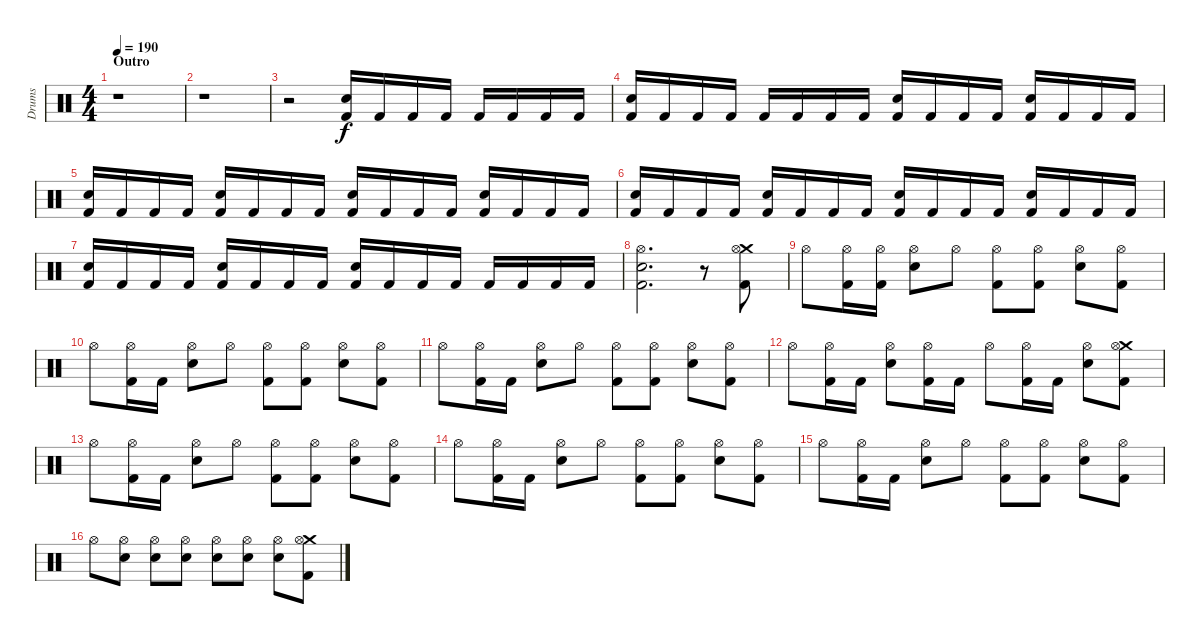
\track ("Drums" "Drums") {instrument percussion}
\staff {score}
\articulation defaults
\ts (4 4)
\section ("" "Outro")
\tempo 190
\clef neutral
\ks c
r.1{dy f} |
r.1{volume 0} |
r.2 ("Kick (hit) 2" "Electric Snare (hit)").16{volume 16} "Kick (hit) 2".16 "Kick (hit) 2".16 "Kick (hit) 2".16 "Kick (hit) 2".16 "Kick (hit) 2".16 "Kick (hit) 2".16 "Kick (hit) 2".16 |
("Kick (hit) 2" "Electric Snare (hit)").16 "Kick (hit) 2".16 "Kick (hit) 2".16 "Kick (hit) 2".16 "Kick (hit) 2".16 "Kick (hit) 2".16 "Kick (hit) 2".16 "Kick (hit) 2".16 ("Kick (hit) 2" "Electric Snare (hit)").16 "Kick (hit) 2".16 "Kick (hit) 2".16 "Kick (hit) 2".16 ("Kick (hit) 2" "Electric Snare (hit)").16 "Kick (hit) 2".16 "Kick (hit) 2".16 "Kick (hit) 2".16 |
("Kick (hit) 2" "Electric Snare (hit)").16 "Kick (hit) 2".16 "Kick (hit) 2".16 "Kick (hit) 2".16 ("Kick (hit) 2" "Electric Snare (hit)").16 "Kick (hit) 2".16 "Kick (hit) 2".16 "Kick (hit) 2".16 ("Kick (hit) 2" "Electric Snare (hit)").16 "Kick (hit) 2".16 "Kick (hit) 2".16 "Kick (hit) 2".16 ("Kick (hit) 2" "Electric Snare (hit)").16 "Kick (hit) 2".16 "Kick (hit) 2".16 "Kick (hit) 2".16 |
("Kick (hit) 2" "Electric Snare (hit)").16 "Kick (hit) 2".16 "Kick (hit) 2".16 "Kick (hit) 2".16 ("Kick (hit) 2" "Electric Snare (hit)").16 "Kick (hit) 2".16 "Kick (hit) 2".16 "Kick (hit) 2".16 ("Kick (hit) 2" "Electric Snare (hit)").16 "Kick (hit) 2".16 "Kick (hit) 2".16 "Kick (hit) 2".16 ("Kick (hit) 2" "Electric Snare (hit)").16 "Kick (hit) 2".16 "Kick (hit) 2".16 "Kick (hit) 2".16 |
("Kick (hit) 2" "Electric Snare (hit)").16 "Kick (hit) 2".16 "Kick (hit) 2".16 "Kick (hit) 2".16 ("Kick (hit) 2" "Electric Snare (hit)").16 "Kick (hit) 2".16 "Kick (hit) 2".16 "Kick (hit) 2".16 ("Kick (hit) 2" "Electric Snare (hit)").16 "Kick (hit) 2".16 "Kick (hit) 2".16 "Kick (hit) 2".16 "Kick (hit) 2".16 "Kick (hit) 2".16 "Kick (hit) 2".16 "Kick (hit) 2".16 |
("Hi-Hat (open)" "Kick (hit) 2" "Electric Snare (hit)").2{d} r.8 ("Crash medium (hit)" "Hi-Hat (open)" "Kick (hit) 2").8 |
"Hi-Hat (open)".8 ("Hi-Hat (open)" "Kick (hit) 2").16 ("Hi-Hat (open)" "Kick (hit) 2").16 ("Hi-Hat (open)" "Electric Snare (hit)").8 "Hi-Hat (open)".8 ("Hi-Hat (open)" "Kick (hit) 2").8 ("Hi-Hat (open)" "Kick (hit) 2").8 ("Hi-Hat (open)" "Electric Snare (hit)").8 ("Hi-Hat (open)" "Kick (hit) 2").8 |
"Hi-Hat (open)".8 ("Hi-Hat (open)" "Kick (hit) 2").16 "Kick (hit) 2".16 ("Hi-Hat (open)" "Electric Snare (hit)").8 "Hi-Hat (open)".8 ("Hi-Hat (open)" "Kick (hit) 2").8 ("Hi-Hat (open)" "Kick (hit) 2").8 ("Hi-Hat (open)" "Electric Snare (hit)").8 ("Hi-Hat (open)" "Kick (hit) 2").8 |
"Hi-Hat (open)".8 ("Hi-Hat (open)" "Kick (hit) 2").16 "Kick (hit) 2".16 ("Hi-Hat (open)" "Electric Snare (hit)").8 "Hi-Hat (open)".8 ("Hi-Hat (open)" "Kick (hit) 2").8 ("Hi-Hat (open)" "Kick (hit) 2").8 ("Hi-Hat (open)" "Electric Snare (hit)").8 ("Hi-Hat (open)" "Kick (hit) 2").8 |
"Hi-Hat (open)".8 ("Hi-Hat (open)" "Kick (hit) 2").16 "Kick (hit) 2".16 ("Hi-Hat (open)" "Electric Snare (hit)").8 ("Hi-Hat (open)" "Kick (hit) 2").16 "Kick (hit) 2".16 "Hi-Hat (open)".8 ("Hi-Hat (open)" "Kick (hit) 2").16 "Kick (hit) 2".16 ("Hi-Hat (open)" "Electric Snare (hit)").8 ("Crash medium (hit)" "Hi-Hat (open)" "Kick (hit) 2").8 |
"Hi-Hat (open)".8 ("Hi-Hat (open)" "Kick (hit) 2").16 "Kick (hit) 2".16 ("Hi-Hat (open)" "Electric Snare (hit)").8 "Hi-Hat (open)".8 ("Hi-Hat (open)" "Kick (hit) 2").8 ("Hi-Hat (open)" "Kick (hit) 2").8 ("Hi-Hat (open)" "Electric Snare (hit)").8 ("Hi-Hat (open)" "Kick (hit) 2").8 |
"Hi-Hat (open)".8 ("Hi-Hat (open)" "Kick (hit) 2").16 "Kick (hit) 2".16 ("Hi-Hat (open)" "Electric Snare (hit)").8 "Hi-Hat (open)".8 ("Hi-Hat (open)" "Kick (hit) 2").8 ("Hi-Hat (open)" "Kick (hit) 2").8 ("Hi-Hat (open)" "Electric Snare (hit)").8 ("Hi-Hat (open)" "Kick (hit) 2").8 |
"Hi-Hat (open)".8 ("Hi-Hat (open)" "Kick (hit) 2").16 "Kick (hit) 2".16 ("Hi-Hat (open)" "Electric Snare (hit)").8 "Hi-Hat (open)".8 ("Hi-Hat (open)" "Kick (hit) 2").8 ("Hi-Hat (open)" "Kick (hit) 2").8 ("Hi-Hat (open)" "Electric Snare (hit)").8 ("Hi-Hat (open)" "Kick (hit) 2").8 |
"Hi-Hat (open)".8 ("Hi-Hat (open)" "Electric Snare (hit)").8 ("Hi-Hat (open)" "Electric Snare (hit)").8 ("Hi-Hat (open)" "Electric Snare (hit)").8 ("Hi-Hat (open)" "Electric Snare (hit)").8 ("Hi-Hat (open)" "Electric Snare (hit)").8 ("Hi-Hat (open)" "Electric Snare (hit)").8 ("Crash medium (hit)" "Hi-Hat (open)" "Kick (hit) 2").8
